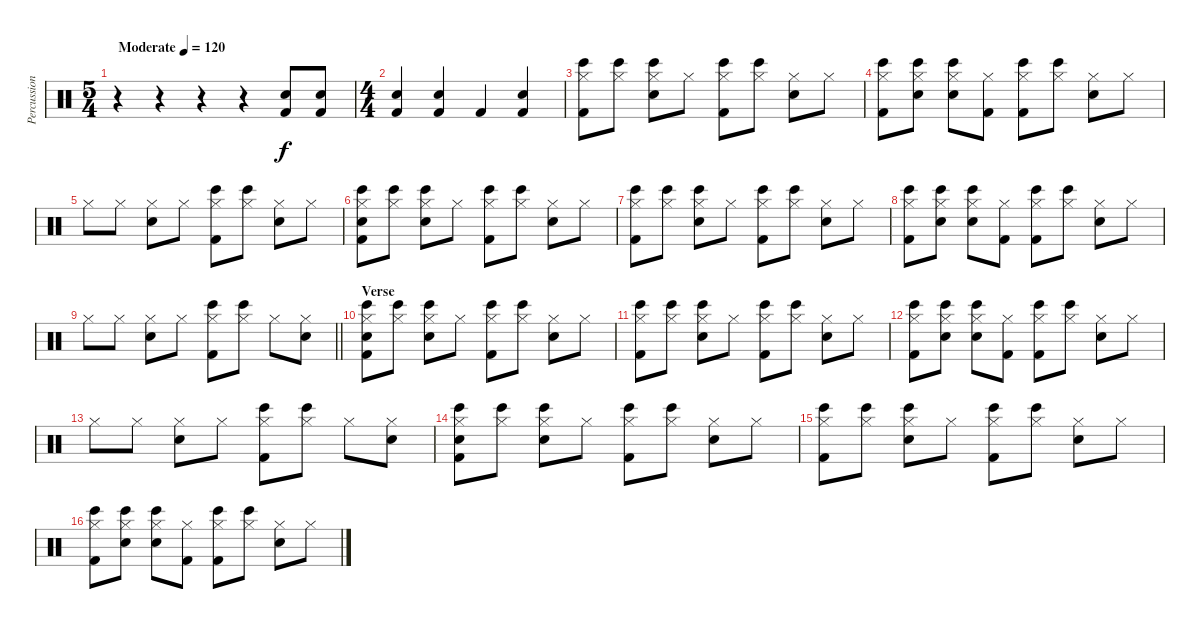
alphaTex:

\track ("Percussion" "Percussion") {instrument percussion}
\staff {score}
\articulation defaults
\ts (5 4)
\tempo (120 "Moderate")
\clef neutral
\ks c
r.4{dy f} r.4 r.4 r.4 ("Snare (hit) 2" "Kick (hit) 2").8 ("Snare (hit) 2" "Kick (hit) 2").8 |
\ts (4 4)
("Snare (hit) 2" "Kick (hit) 2").4 ("Snare (hit) 2" "Kick (hit) 2").4 "Kick (hit) 2".4 ("Snare (hit) 2" "Kick (hit) 2").4 |
("Hi-Hat (closed)" "Bongo High (hit)" "Kick (hit) 2").8 ("Hi-Hat (closed)" "Bongo High (hit)").8 ("Hi-Hat (closed)" "Bongo High (hit)" "Snare (hit) 2").8 "Hi-Hat (closed)".8 ("Hi-Hat (closed)" "Bongo High (hit)" "Kick (hit) 2").8 ("Hi-Hat (closed)" "Bongo High (hit)").8 ("Hi-Hat (closed)" "Snare (hit) 2").8 "Hi-Hat (closed)".8 |
("Hi-Hat (closed)" "Bongo High (hit)" "Kick (hit) 2").8 ("Hi-Hat (closed)" "Bongo High (hit)" "Snare (hit) 2").8 ("Hi-Hat (closed)" "Bongo High (hit)" "Snare (hit) 2").8 ("Hi-Hat (closed)" "Kick (hit) 2").8 ("Hi-Hat (closed)" "Bongo High (hit)" "Kick (hit) 2").8 ("Hi-Hat (closed)" "Bongo High (hit)").8 ("Hi-Hat (closed)" "Snare (hit) 2").8 "Hi-Hat (closed)".8 |
"Hi-Hat (closed)".8 "Hi-Hat (closed)".8 ("Hi-Hat (closed)" "Snare (hit) 2").8 "Hi-Hat (closed)".8 ("Hi-Hat (closed)" "Bongo High (hit)" "Kick (hit) 2").8 ("Hi-Hat (closed)" "Bongo High (hit)").8 ("Hi-Hat (closed)" "Snare (hit) 2").8 "Hi-Hat (closed)".8 |
("Hi-Hat (closed)" "Bongo High (hit)" "Snare (hit) 2" "Kick (hit) 2").8 ("Hi-Hat (closed)" "Bongo High (hit)").8 ("Hi-Hat (closed)" "Bongo High (hit)" "Snare (hit) 2").8 "Hi-Hat (closed)".8 ("Hi-Hat (closed)" "Bongo High (hit)" "Kick (hit) 2").8 ("Hi-Hat (closed)" "Bongo High (hit)").8 ("Hi-Hat (closed)" "Snare (hit) 2").8 "Hi-Hat (closed)".8 |
("Hi-Hat (closed)" "Bongo High (hit)" "Kick (hit) 2").8 ("Hi-Hat (closed)" "Bongo High (hit)").8 ("Hi-Hat (closed)" "Bongo High (hit)" "Snare (hit) 2").8 "Hi-Hat (closed)".8 ("Hi-Hat (closed)" "Bongo High (hit)" "Kick (hit) 2").8 ("Hi-Hat (closed)" "Bongo High (hit)").8 ("Hi-Hat (closed)" "Snare (hit) 2").8 "Hi-Hat (closed)".8 |
("Hi-Hat (closed)" "Bongo High (hit)" "Kick (hit) 2").8 ("Hi-Hat (closed)" "Bongo High (hit)" "Snare (hit) 2").8 ("Hi-Hat (closed)" "Bongo High (hit)" "Snare (hit) 2").8 ("Hi-Hat (closed)" "Kick (hit) 2").8 ("Hi-Hat (closed)" "Bongo High (hit)" "Kick (hit) 2").8 ("Hi-Hat (closed)" "Bongo High (hit)").8 ("Hi-Hat (closed)" "Snare (hit) 2").8 "Hi-Hat (closed)".8 |
\barLineRight lightlight "Hi-Hat (closed)".8 "Hi-Hat (closed)".8
("Hi-Hat (closed)" "Snare (hit) 2").8 "Hi-Hat (closed)".8 ("Hi-Hat (closed)" "Bongo High (hit)" "Kick (hit) 2").8 ("Hi-Hat (closed)" "Bongo High (hit)").8 "Hi-Hat (closed)".8 ("Hi-Hat (closed)" "Snare (hit) 2").8 |
\section ("" "Verse")
("Hi-Hat (closed)" "Bongo High (hit)" "Snare (hit) 2" "Kick (hit) 2").8 ("Hi-Hat (closed)" "Bongo High (hit)").8 ("Hi-Hat (closed)" "Bongo High (hit)" "Snare (hit) 2").8 "Hi-Hat (closed)".8 ("Hi-Hat (closed)" "Bongo High (hit)" "Kick (hit) 2").8 ("Hi-Hat (closed)" "Bongo High (hit)").8 ("Hi-Hat (closed)" "Snare (hit) 2").8 "Hi-Hat (closed)".8 |
("Hi-Hat (closed)" "Bongo High (hit)" "Kick (hit) 2").8 ("Hi-Hat (closed)" "Bongo High (hit)").8 ("Hi-Hat (closed)" "Bongo High (hit)" "Snare (hit) 2").8 "Hi-Hat (closed)".8 ("Hi-Hat (closed)" "Bongo High (hit)" "Kick (hit) 2").8 ("Hi-Hat (closed)" "Bongo High (hit)").8 ("Hi-Hat (closed)" "Snare (hit) 2").8 "Hi-Hat (closed)".8 |
("Hi-Hat (closed)" "Bongo High (hit)" "Kick (hit) 2").8 ("Hi-Hat (closed)" "Bongo High (hit)" "Snare (hit) 2").8 ("Hi-Hat (closed)" "Bongo High (hit)" "Snare (hit) 2").8 ("Hi-Hat (closed)" "Kick (hit) 2").8 ("Hi-Hat (closed)" "Bongo High (hit)" "Kick (hit) 2").8 ("Hi-Hat (closed)" "Bongo High (hit)").8 ("Hi-Hat (closed)" "Snare (hit) 2").8 "Hi-Hat (closed)".8 |
"Hi-Hat (closed)".8 "Hi-Hat (closed)".8 ("Hi-Hat (closed)" "Snare (hit) 2").8 "Hi-Hat (closed)".8 ("Hi-Hat (closed)" "Bongo High (hit)" "Kick (hit) 2").8 ("Hi-Hat (closed)" "Bongo High (hit)").8 "Hi-Hat (closed)".8 ("Hi-Hat (closed)" "Snare (hit) 2").8 |
("Hi-Hat (closed)" "Bongo High (hit)" "Snare (hit) 2" "Kick (hit) 2").8 ("Hi-Hat (closed)" "Bongo High (hit)").8 ("Hi-Hat (closed)" "Bongo High (hit)" "Snare (hit) 2").8 "Hi-Hat (closed)".8 ("Hi-Hat (closed)" "Bongo High (hit)" "Kick (hit) 2").8 ("Hi-Hat (closed)" "Bongo High (hit)").8 ("Hi-Hat (closed)" "Snare (hit) 2").8 "Hi-Hat (closed)".8 |
("Hi-Hat (closed)" "Bongo High (hit)" "Kick (hit) 2").8 ("Hi-Hat (closed)" "Bongo High (hit)").8 ("Hi-Hat (closed)" "Bongo High (hit)" "Snare (hit) 2").8 "Hi-Hat (closed)".8 ("Hi-Hat (closed)" "Bongo High (hit)" "Kick (hit) 2").8 ("Hi-Hat (closed)" "Bongo High (hit)").8 ("Hi-Hat (closed)" "Snare (hit) 2").8 "Hi-Hat (closed)".8 |
("Hi-Hat (closed)" "Bongo High (hit)" "Kick (hit) 2").8 ("Hi-Hat (closed)" "Bongo High (hit)" "Snare (hit) 2").8 ("Hi-Hat (closed)" "Bongo High (hit)" "Snare (hit) 2").8 ("Hi-Hat (closed)" "Kick (hit) 2").8 ("Hi-Hat (closed)" "Bongo High (hit)" "Kick (hit) 2").8 ("Hi-Hat (closed)" "Bongo High (hit)").8 ("Hi-Hat (closed)" "Snare (hit) 2").8 "Hi-Hat (closed)".8
